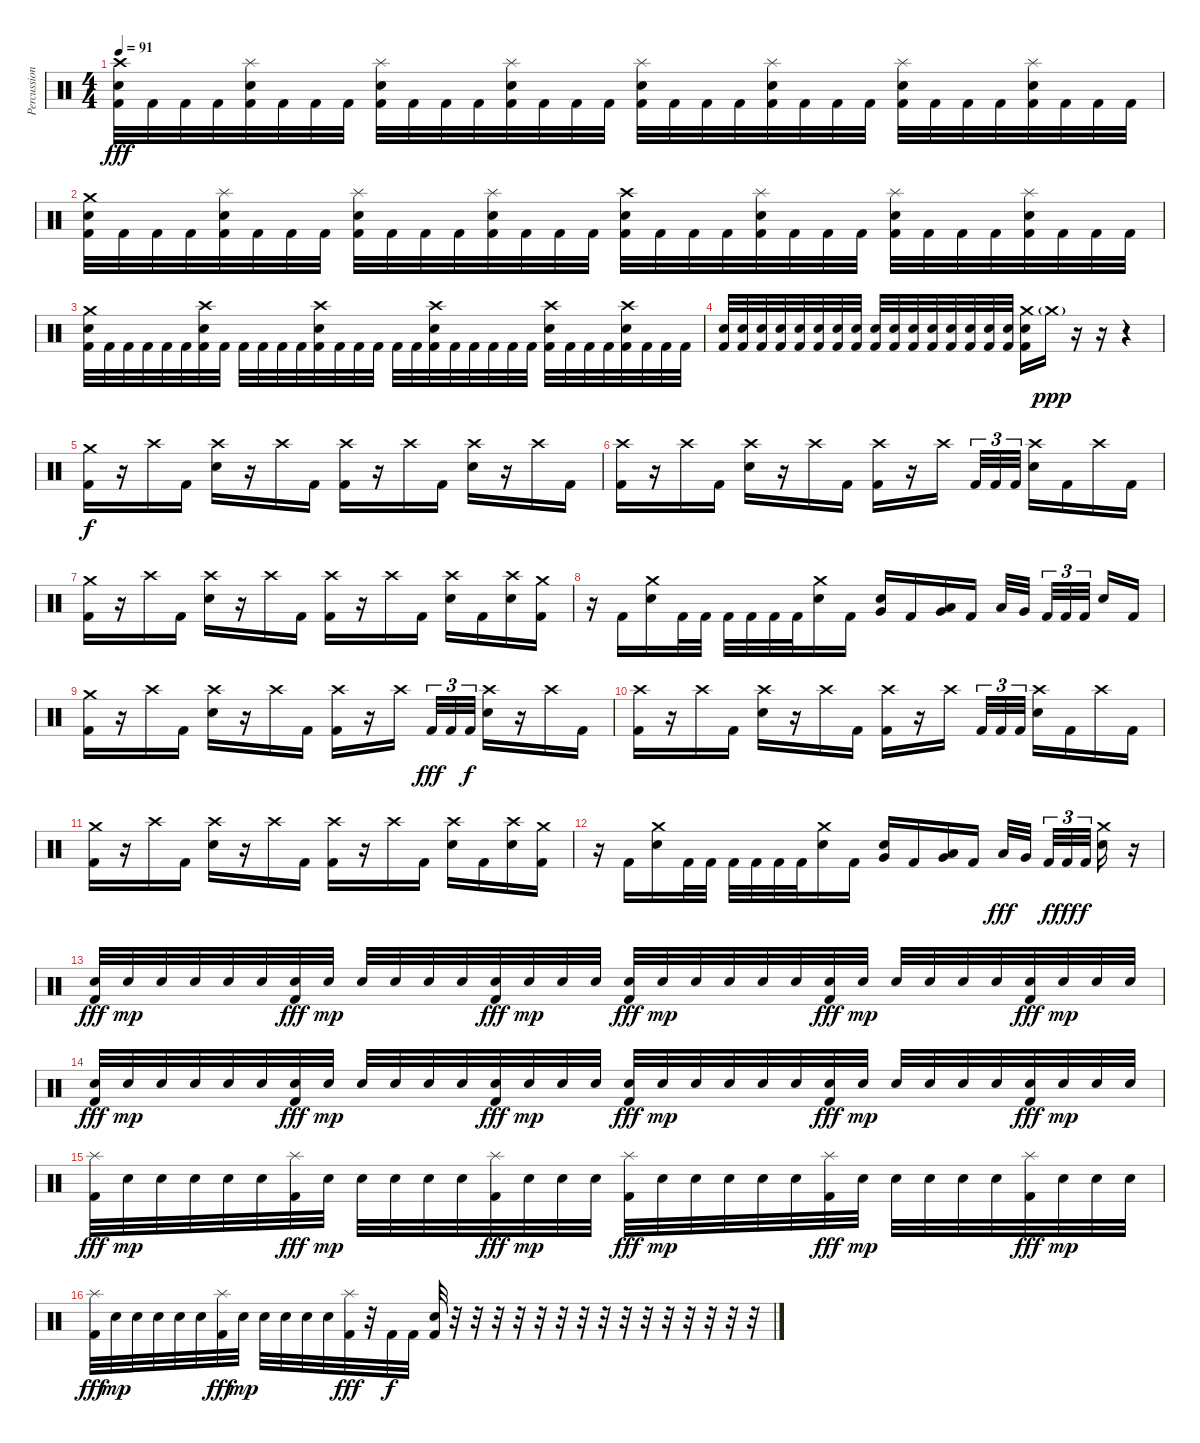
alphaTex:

\track ("Percussion" "Percussion") {instrument percussion}
\staff {score}
\articulation defaults
\ts (4 4)
\tempo 91
\clef neutral
\ks c
("Crash high (hit)" "Electric Snare (hit)" "Kick (hit) 2").32{dy fff} "Kick (hit) 2".32 "Kick (hit) 2".32 "Kick (hit) 2".32 ("Splash (hit)" "Electric Snare (hit)" "Kick (hit) 2").32 "Kick (hit) 2".32 "Kick (hit) 2".32 "Kick (hit) 2".32 ("Splash (hit)" "Electric Snare (hit)" "Kick (hit) 2").32 "Kick (hit) 2".32 "Kick (hit) 2".32 "Kick (hit) 2".32 ("Splash (hit)" "Electric Snare (hit)" "Kick (hit) 2").32 "Kick (hit) 2".32 "Kick (hit) 2".32 "Kick (hit) 2".32 ("Splash (hit)" "Electric Snare (hit)" "Kick (hit) 2").32 "Kick (hit) 2".32 "Kick (hit) 2".32 "Kick (hit) 2".32 ("Splash (hit)" "Electric Snare (hit)" "Kick (hit) 2").32 "Kick (hit) 2".32 "Kick (hit) 2".32 "Kick (hit) 2".32 ("Splash (hit)" "Electric Snare (hit)" "Kick (hit) 2").32 "Kick (hit) 2".32 "Kick (hit) 2".32 "Kick (hit) 2".32 ("Splash (hit)" "Electric Snare (hit)" "Kick (hit) 2").32 "Kick (hit) 2".32 "Kick (hit) 2".32 "Kick (hit) 2".32 |
("Crash medium (hit)" "Electric Snare (hit)" "Kick (hit) 2").32 "Kick (hit) 2".32 "Kick (hit) 2".32 "Kick (hit) 2".32 ("Splash (hit)" "Electric Snare (hit)" "Kick (hit) 2").32 "Kick (hit) 2".32 "Kick (hit) 2".32 "Kick (hit) 2".32 ("Splash (hit)" "Electric Snare (hit)" "Kick (hit) 2").32 "Kick (hit) 2".32 "Kick (hit) 2".32 "Kick (hit) 2".32 ("Splash (hit)" "Electric Snare (hit)" "Kick (hit) 2").32 "Kick (hit) 2".32 "Kick (hit) 2".32 "Kick (hit) 2".32 ("Crash high (hit)" "Electric Snare (hit)" "Kick (hit) 2").32 "Kick (hit) 2".32 "Kick (hit) 2".32 "Kick (hit) 2".32 ("Splash (hit)" "Electric Snare (hit)" "Kick (hit) 2").32 "Kick (hit) 2".32 "Kick (hit) 2".32 "Kick (hit) 2".32 ("Splash (hit)" "Electric Snare (hit)" "Kick (hit) 2").32 "Kick (hit) 2".32 "Kick (hit) 2".32 "Kick (hit) 2".32 ("Splash (hit)" "Electric Snare (hit)" "Kick (hit) 2").32 "Kick (hit) 2".32 "Kick (hit) 2".32 "Kick (hit) 2".32 |
("Crash medium (hit)" "Electric Snare (hit)" "Kick (hit) 2").32 "Kick (hit) 2".32 "Kick (hit) 2".32 "Kick (hit) 2".32 "Kick (hit) 2".32 "Kick (hit) 2".32 ("Crash high (hit)" "Electric Snare (hit)" "Kick (hit) 2").32 "Kick (hit) 2".32 "Kick (hit) 2".32 "Kick (hit) 2".32 "Kick (hit) 2".32 "Kick (hit) 2".32 ("Crash high (hit)" "Electric Snare (hit)" "Kick (hit) 2").32 "Kick (hit) 2".32 "Kick (hit) 2".32 "Kick (hit) 2".32 "Kick (hit) 2".32 "Kick (hit) 2".32 ("Crash high (hit)" "Electric Snare (hit)" "Kick (hit) 2").32 "Kick (hit) 2".32 "Kick (hit) 2".32 "Kick (hit) 2".32 "Kick (hit) 2".32 "Kick (hit) 2".32 ("Crash high (hit)" "Electric Snare (hit)" "Kick (hit) 2").32 "Kick (hit) 2".32 "Kick (hit) 2".32 "Kick (hit) 2".32 ("Crash high (hit)" "Electric Snare (hit)" "Kick (hit) 2").32 "Kick (hit) 2".32 "Kick (hit) 2".32 "Kick (hit) 2".32 |
("Electric Snare (hit)" "Kick (hit) 2").32 ("Electric Snare (hit)" "Kick (hit) 2").32 ("Electric Snare (hit)" "Kick (hit) 2").32 ("Electric Snare (hit)" "Kick (hit) 2").32 ("Electric Snare (hit)" "Kick (hit) 2").32 ("Electric Snare (hit)" "Kick (hit) 2").32 ("Electric Snare (hit)" "Kick (hit) 2").32 ("Electric Snare (hit)" "Kick (hit) 2").32 ("Electric Snare (hit)" "Kick (hit) 2").32 ("Electric Snare (hit)" "Kick (hit) 2").32 ("Electric Snare (hit)" "Kick (hit) 2").32 ("Electric Snare (hit)" "Kick (hit) 2").32 ("Electric Snare (hit)" "Kick (hit) 2").32 ("Electric Snare (hit)" "Kick (hit) 2").32 ("Electric Snare (hit)" "Kick (hit) 2").32 ("Electric Snare (hit)" "Kick (hit) 2").32 ("Crash medium (hit)" "Electric Snare (hit)" "Kick (hit) 2").16 "Crash medium (hit)"{g}.16{dy ppp} r.16 r.16 r.4 |
("Crash medium (hit)" "Kick (hit) 2").16{dy f} r.16 "Crash high (hit)".16 "Kick (hit) 2".16 ("Crash high (hit)" "Electric Snare (hit)").16 r.16 "Crash high (hit)".16 "Kick (hit) 2".16 ("Crash high (hit)" "Kick (hit) 2").16 r.16 "Crash high (hit)".16 "Kick (hit) 2".16 ("Crash high (hit)" "Electric Snare (hit)").16 r.16 "Crash high (hit)".16 "Kick (hit) 2".16 |
("Crash high (hit)" "Kick (hit) 2").16 r.16 "Crash high (hit)".16 "Kick (hit) 2".16 ("Crash high (hit)" "Electric Snare (hit)").16 r.16 "Crash high (hit)".16 "Kick (hit) 2".16 ("Crash high (hit)" "Kick (hit) 2").16 r.16 "Crash high (hit)".16{beam splitsecondary} "Kick (hit) 2".32{tu (3 2)} "Kick (hit) 2".32{tu (3 2)} "Kick (hit) 2".32{tu (3 2)} ("Crash high (hit)" "Electric Snare (hit)").16 "Kick (hit) 2".16 "Crash high (hit)".16 "Kick (hit) 2".16 |
("Crash medium (hit)" "Kick (hit) 2").16 r.16 "Crash high (hit)".16 "Kick (hit) 2".16 ("Crash high (hit)" "Electric Snare (hit)").16 r.16 "Crash high (hit)".16 "Kick (hit) 2".16 ("Crash high (hit)" "Kick (hit) 2").16 r.16 "Crash high (hit)".16 "Kick (hit) 2".16 ("Crash high (hit)" "Electric Snare (hit)").16 "Kick (hit) 2".16 ("Crash high (hit)" "Electric Snare (hit)").16 ("Crash medium (hit)" "Kick (hit) 2").16 |
r.16 "Kick (hit) 2".16 ("Crash medium (hit)" "Electric Snare (hit)").16 "Kick (hit) 2".32 "Kick (hit) 2".32 "Kick (hit) 2".32 "Kick (hit) 2".32 "Kick (hit) 2".32 "Kick (hit) 2".32 ("Crash medium (hit)" "Electric Snare (hit)").16 "Kick (hit) 2".16 ("Electric Snare (hit)" "Very Low Tom (hit)").16 "Kick (hit) 2".16 ("Very Low Tom (hit)" "Low Floor Tom (hit)").16 "Kick (hit) 2".16 "Low Tom (hit)".32 "Very Low Tom (hit)".32{beam splitsecondary} "Kick (hit) 2".32{tu (3 2)} "Kick (hit) 2".32{tu (3 2)} "Kick (hit) 2".32{tu (3 2) beam splitsecondary} "Electric Snare (hit)".16 "Kick (hit) 2".16 |
("Crash medium (hit)" "Kick (hit) 2").16 r.16 "Crash high (hit)".16 "Kick (hit) 2".16 ("Crash high (hit)" "Electric Snare (hit)").16 r.16 "Crash high (hit)".16 "Kick (hit) 2".16 ("Crash high (hit)" "Kick (hit) 2").16 r.16 "Crash high (hit)".16{beam splitsecondary} "Kick (hit) 2".32{tu (3 2) dy fff} "Kick (hit) 2".32{tu (3 2)} "Kick (hit) 2".32{tu (3 2) dy f} ("Crash high (hit)" "Electric Snare (hit)").16 r.16 "Crash high (hit)".16 "Kick (hit) 2".16 |
("Crash high (hit)" "Kick (hit) 2").16 r.16 "Crash high (hit)".16 "Kick (hit) 2".16 ("Crash high (hit)" "Electric Snare (hit)").16 r.16 "Crash high (hit)".16 "Kick (hit) 2".16 ("Crash high (hit)" "Kick (hit) 2").16 r.16 "Crash high (hit)".16{beam splitsecondary} "Kick (hit) 2".32{tu (3 2)} "Kick (hit) 2".32{tu (3 2)} "Kick (hit) 2".32{tu (3 2)} ("Crash high (hit)" "Electric Snare (hit)").16 "Kick (hit) 2".16 "Crash high (hit)".16 "Kick (hit) 2".16 |
("Crash medium (hit)" "Kick (hit) 2").16 r.16 "Crash high (hit)".16 "Kick (hit) 2".16 ("Crash high (hit)" "Electric Snare (hit)").16 r.16 "Crash high (hit)".16 "Kick (hit) 2".16 ("Crash high (hit)" "Kick (hit) 2").16 r.16 "Crash high (hit)".16 "Kick (hit) 2".16 ("Crash high (hit)" "Electric Snare (hit)").16 "Kick (hit) 2".16 ("Crash high (hit)" "Electric Snare (hit)").16 ("Crash medium (hit)" "Kick (hit) 2").16 |
r.16 "Kick (hit) 2".16 ("Crash medium (hit)" "Electric Snare (hit)").16 "Kick (hit) 2".32 "Kick (hit) 2".32 "Kick (hit) 2".32 "Kick (hit) 2".32 "Kick (hit) 2".32 "Kick (hit) 2".32 ("Crash medium (hit)" "Electric Snare (hit)").16 "Kick (hit) 2".16 ("Electric Snare (hit)" "Very Low Tom (hit)").16 "Kick (hit) 2".16 ("Very Low Tom (hit)" "Low Floor Tom (hit)").16 "Kick (hit) 2".16 "Low Tom (hit)".32{dy fff} "Very Low Tom (hit)".32{beam splitsecondary} "Kick (hit) 2".32{tu (3 2) dy f} "Kick (hit) 2".32{tu (3 2) dy fff} "Kick (hit) 2".32{tu (3 2) dy f beam splitsecondary} ("Crash medium (hit)" "Electric Snare (hit)").16 r.16 |
("Electric Snare (hit)" "Kick (hit) 2").32{dy fff} "Electric Snare (hit)".32{dy mp} "Electric Snare (hit)".32 "Electric Snare (hit)".32 "Electric Snare (hit)".32 "Electric Snare (hit)".32 ("Electric Snare (hit)" "Kick (hit) 2").32{dy fff} "Electric Snare (hit)".32{dy mp} "Electric Snare (hit)".32 "Electric Snare (hit)".32 "Electric Snare (hit)".32 "Electric Snare (hit)".32 ("Electric Snare (hit)" "Kick (hit) 2").32{dy fff} "Electric Snare (hit)".32{dy mp} "Electric Snare (hit)".32 "Electric Snare (hit)".32 ("Electric Snare (hit)" "Kick (hit) 2").32{dy fff} "Electric Snare (hit)".32{dy mp} "Electric Snare (hit)".32 "Electric Snare (hit)".32 "Electric Snare (hit)".32 "Electric Snare (hit)".32 ("Electric Snare (hit)" "Kick (hit) 2").32{dy fff} "Electric Snare (hit)".32{dy mp} "Electric Snare (hit)".32 "Electric Snare (hit)".32 "Electric Snare (hit)".32 "Electric Snare (hit)".32 ("Electric Snare (hit)" "Kick (hit) 2").32{dy fff} "Electric Snare (hit)".32{dy mp} "Electric Snare (hit)".32 "Electric Snare (hit)".32 |
("Electric Snare (hit)" "Kick (hit) 2").32{dy fff} "Electric Snare (hit)".32{dy mp} "Electric Snare (hit)".32 "Electric Snare (hit)".32 "Electric Snare (hit)".32 "Electric Snare (hit)".32 ("Electric Snare (hit)" "Kick (hit) 2").32{dy fff} "Electric Snare (hit)".32{dy mp} "Electric Snare (hit)".32 "Electric Snare (hit)".32 "Electric Snare (hit)".32 "Electric Snare (hit)".32 ("Electric Snare (hit)" "Kick (hit) 2").32{dy fff} "Electric Snare (hit)".32{dy mp} "Electric Snare (hit)".32 "Electric Snare (hit)".32 ("Electric Snare (hit)" "Kick (hit) 2").32{dy fff} "Electric Snare (hit)".32{dy mp} "Electric Snare (hit)".32 "Electric Snare (hit)".32 "Electric Snare (hit)".32 "Electric Snare (hit)".32 ("Electric Snare (hit)" "Kick (hit) 2").32{dy fff} "Electric Snare (hit)".32{dy mp} "Electric Snare (hit)".32 "Electric Snare (hit)".32 "Electric Snare (hit)".32 "Electric Snare (hit)".32 ("Electric Snare (hit)" "Kick (hit) 2").32{dy fff} "Electric Snare (hit)".32{dy mp} "Electric Snare (hit)".32 "Electric Snare (hit)".32 |
("Splash (hit)" "Kick (hit) 2").32{dy fff} "Electric Snare (hit)".32{dy mp} "Electric Snare (hit)".32 "Electric Snare (hit)".32 "Electric Snare (hit)".32 "Electric Snare (hit)".32 ("Splash (hit)" "Kick (hit) 2").32{dy fff} "Electric Snare (hit)".32{dy mp} "Electric Snare (hit)".32 "Electric Snare (hit)".32 "Electric Snare (hit)".32 "Electric Snare (hit)".32 ("Splash (hit)" "Kick (hit) 2").32{dy fff} "Electric Snare (hit)".32{dy mp} "Electric Snare (hit)".32 "Electric Snare (hit)".32 ("Splash (hit)" "Kick (hit) 2").32{dy fff} "Electric Snare (hit)".32{dy mp} "Electric Snare (hit)".32 "Electric Snare (hit)".32 "Electric Snare (hit)".32 "Electric Snare (hit)".32 ("Splash (hit)" "Kick (hit) 2").32{dy fff} "Electric Snare (hit)".32{dy mp} "Electric Snare (hit)".32 "Electric Snare (hit)".32 "Electric Snare (hit)".32 "Electric Snare (hit)".32 ("Splash (hit)" "Kick (hit) 2").32{dy fff} "Electric Snare (hit)".32{dy mp} "Electric Snare (hit)".32 "Electric Snare (hit)".32 |
("Splash (hit)" "Kick (hit) 2").32{dy fff} "Electric Snare (hit)".32{dy mp} "Electric Snare (hit)".32 "Electric Snare (hit)".32 "Electric Snare (hit)".32 "Electric Snare (hit)".32 ("Splash (hit)" "Kick (hit) 2").32{dy fff} "Electric Snare (hit)".32{dy mp} "Electric Snare (hit)".32 "Electric Snare (hit)".32 "Electric Snare (hit)".32 "Electric Snare (hit)".32 ("Splash (hit)" "Kick (hit) 2").32{dy fff} r.32 "Kick (hit) 2".32{dy f} "Kick (hit) 2".32 ("Electric Snare (hit)" "Kick (hit) 2").32 r.32 r.32 r.32 r.32 r.32 r.32 r.32 r.32 r.32 r.32 r.32 r.32 r.32 r.32 r.32
